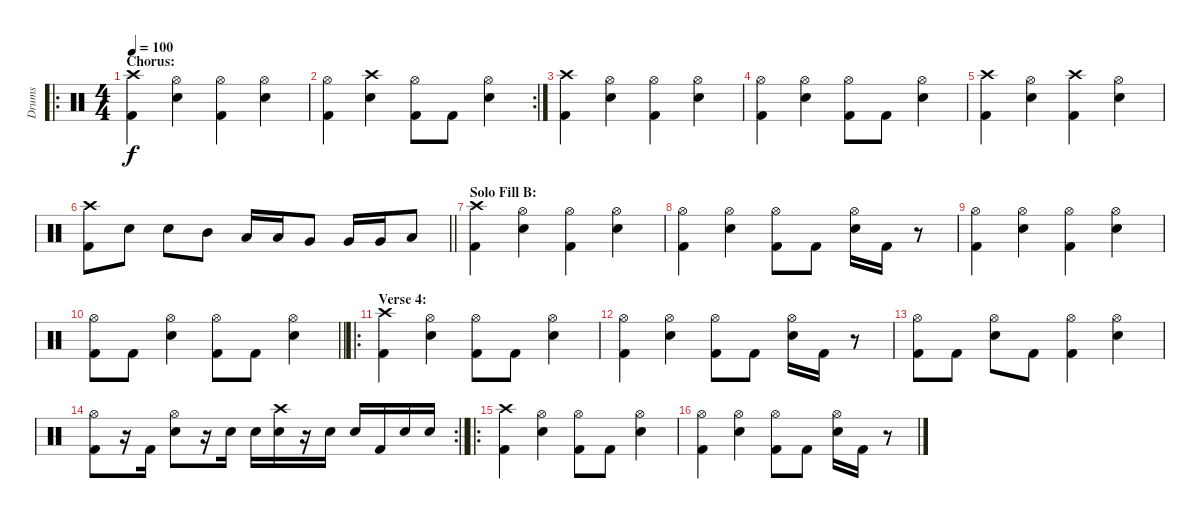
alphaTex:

\track ("Drums" "Drums") {instrument percussion}
\staff {score}
\articulation defaults
\ro
\ts (4 4)
\section ("" "Chorus:")
\tempo 100
\clef neutral
\ks c
("Crash high (hit)" "Kick (hit) 2").4{dy f} ("Hi-Hat (open)" "Electric Snare (hit)").4 ("Hi-Hat (open)" "Kick (hit) 2").4 ("Hi-Hat (open)" "Electric Snare (hit)").4 |
\rc 2
("Hi-Hat (open)" "Kick (hit) 2").4 ("Crash high (hit)" "Electric Snare (hit)").4 ("Hi-Hat (open)" "Kick (hit) 2").8 "Kick (hit) 2".8 ("Hi-Hat (open)" "Electric Snare (hit)").4 |
("Crash high (hit)" "Kick (hit) 2").4 ("Hi-Hat (open)" "Electric Snare (hit)").4 ("Hi-Hat (open)" "Kick (hit) 2").4 ("Hi-Hat (open)" "Electric Snare (hit)").4 |
("Hi-Hat (open)" "Kick (hit) 2").4 ("Hi-Hat (open)" "Electric Snare (hit)").4 ("Hi-Hat (open)" "Kick (hit) 2").8 "Kick (hit) 2".8 ("Hi-Hat (open)" "Electric Snare (hit)").4 |
("Crash high (hit)" "Kick (hit) 2").4 ("Hi-Hat (open)" "Electric Snare (hit)").4 ("Crash high (hit)" "Kick (hit) 2").4 ("Hi-Hat (open)" "Electric Snare (hit)").4 |
\barLineRight lightlight
("Crash high (hit)" "Kick (hit) 2").8 "Electric Snare (hit)".8 "Electric Snare (hit)".8 "Mid Tom (hit)".8 "Low Tom (hit)".16 "Low Tom (hit)".16 "Very Low Tom (hit)".8 "Very Low Tom (hit)".16 "Very Low Tom (hit)".16 "Low Floor Tom (hit)".8 |
\section ("" "Solo Fill B:")
("Crash high (hit)" "Kick (hit) 2").4 ("Hi-Hat (open)" "Electric Snare (hit)").4 ("Hi-Hat (open)" "Kick (hit) 2").4 ("Hi-Hat (open)" "Electric Snare (hit)").4 |
("Hi-Hat (open)" "Kick (hit) 2").4 ("Hi-Hat (open)" "Electric Snare (hit)").4 ("Hi-Hat (open)" "Kick (hit) 2").8 "Kick (hit) 2".8 ("Hi-Hat (open)" "Electric Snare (hit)").16 "Kick (hit) 2".16 r.8 |
("Hi-Hat (open)" "Kick (hit) 2").4 ("Hi-Hat (open)" "Electric Snare (hit)").4 ("Hi-Hat (open)" "Kick (hit) 2").4 ("Hi-Hat (open)" "Electric Snare (hit)").4 |
\barLineRight lightlight
("Hi-Hat (open)" "Kick (hit) 2").8 "Kick (hit) 2".8 ("Hi-Hat (open)" "Electric Snare (hit)").4 ("Hi-Hat (open)" "Kick (hit) 2").8 "Kick (hit) 2".8 ("Hi-Hat (open)" "Electric Snare (hit)").4 |
\ro
\section ("" "Verse 4:")
("Crash high (hit)" "Kick (hit) 2").4 ("Hi-Hat (open)" "Electric Snare (hit)").4 ("Hi-Hat (open)" "Kick (hit) 2").8 "Kick (hit) 2".8 ("Hi-Hat (open)" "Electric Snare (hit)").4 |
("Hi-Hat (open)" "Kick (hit) 2").4 ("Hi-Hat (open)" "Electric Snare (hit)").4 ("Hi-Hat (open)" "Kick (hit) 2").8 "Kick (hit) 2".8 ("Hi-Hat (open)" "Electric Snare (hit)").16 "Kick (hit) 2".16 r.8 |
("Hi-Hat (open)" "Kick (hit) 2").8 "Kick (hit) 2".8 ("Hi-Hat (open)" "Electric Snare (hit)").8 "Kick (hit) 2".8 ("Hi-Hat (open)" "Kick (hit) 2").4 ("Hi-Hat (open)" "Electric Snare (hit)").4 |
\rc 2
\barLineRight lightlight
("Hi-Hat (open)" "Kick (hit) 2").8 r.16 "Kick (hit) 2".16 ("Hi-Hat (open)" "Electric Snare (hit)").8 r.16 "Electric Snare (hit)".16 "Electric Snare (hit)".16 ("Crash high (hit)" "Electric Snare (hit)").16 r.16 "Electric Snare (hit)".16 "Electric Snare (hit)".16 "Kick (hit) 2".16 "Electric Snare (hit)".16 "Electric Snare (hit)".16 |
\ro
("Crash high (hit)" "Kick (hit) 2").4 ("Hi-Hat (open)" "Electric Snare (hit)").4 ("Hi-Hat (open)" "Kick (hit) 2").8 "Kick (hit) 2".8 ("Hi-Hat (open)" "Electric Snare (hit)").4 |
("Hi-Hat (open)" "Kick (hit) 2").4 ("Hi-Hat (open)" "Electric Snare (hit)").4 ("Hi-Hat (open)" "Kick (hit) 2").8 "Kick (hit) 2".8 ("Hi-Hat (open)" "Electric Snare (hit)").16 "Kick (hit) 2".16 r.8
